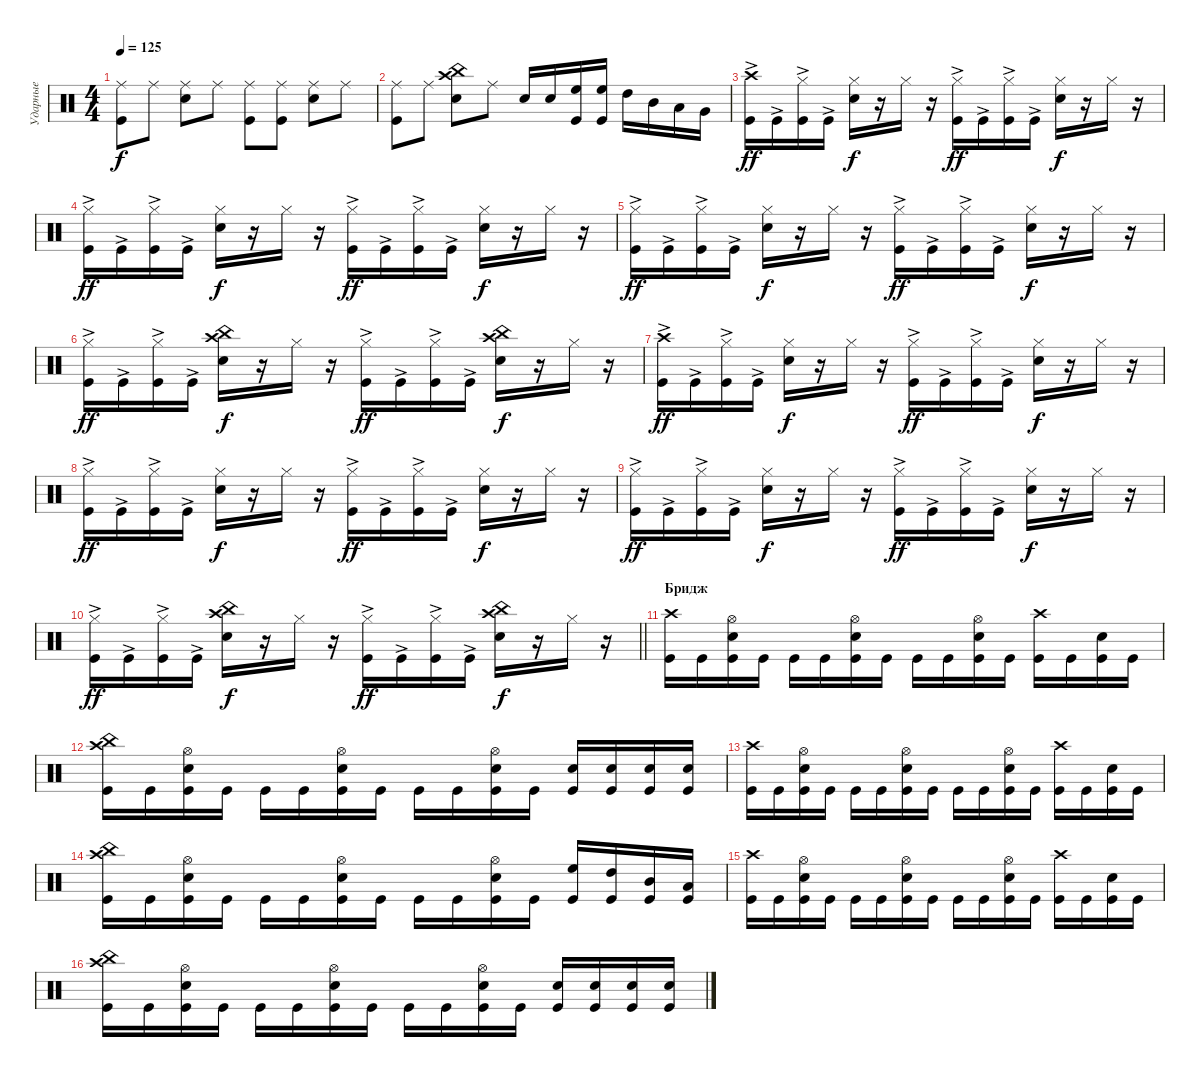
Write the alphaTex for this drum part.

\track ("Ударные" "Ударные") {instrument percussion}
\staff {score}
\articulation defaults
\ts (4 4)
\tempo 125
\clef neutral
\ks c
("Ride (middle)" "Kick (hit)").8{dy f} "Ride (middle)".8 ("Ride (middle)" "Snare (hit) 2").8 "Ride (middle)".8 ("Ride (middle)" "Kick (hit)").8 ("Ride (middle)" "Kick (hit)").8 ("Ride (middle)" "Snare (hit) 2").8 "Ride (middle)".8 |
("Ride (middle)" "Kick (hit)").8 "Ride (middle)".8 ("Crash high (hit)" "China (hit)" "Snare (hit) 2").8 "Ride (middle)".8 "Snare (hit) 2".16 "Snare (hit) 2".16 ("High Floor Tom (hit)" "Kick (hit)").16 ("High Floor Tom (hit)" "Kick (hit)").16 "High Tom (hit)".16 "Mid Tom (hit)".16 "Low Tom (hit)".16 "Very Low Tom (hit)".16 |
("Crash high (hit)" "Kick (hit)"{ac}).16{dy ff} "Kick (hit)"{ac}.16 ("Hi-Hat (closed)" "Kick (hit)"{ac}).16 "Kick (hit)"{ac}.16 ("Hi-Hat (closed)" "Snare (hit) 2").16{dy f} r.16 "Hi-Hat (closed)".16 r.16 ("Hi-Hat (closed)" "Kick (hit)"{ac}).16{dy ff} "Kick (hit)"{ac}.16 ("Hi-Hat (closed)" "Kick (hit)"{ac}).16 "Kick (hit)"{ac}.16 ("Hi-Hat (closed)" "Snare (hit) 2").16{dy f} r.16 "Hi-Hat (closed)".16 r.16 |
("Hi-Hat (closed)" "Kick (hit)"{ac}).16{dy ff} "Kick (hit)"{ac}.16 ("Hi-Hat (closed)" "Kick (hit)"{ac}).16 "Kick (hit)"{ac}.16 ("Hi-Hat (closed)" "Snare (hit) 2").16{dy f} r.16 "Hi-Hat (closed)".16 r.16 ("Hi-Hat (closed)" "Kick (hit)"{ac}).16{dy ff} "Kick (hit)"{ac}.16 ("Hi-Hat (closed)" "Kick (hit)"{ac}).16 "Kick (hit)"{ac}.16 ("Hi-Hat (closed)" "Snare (hit) 2").16{dy f} r.16 "Hi-Hat (closed)".16 r.16 |
("Hi-Hat (closed)" "Kick (hit)"{ac}).16{dy ff} "Kick (hit)"{ac}.16 ("Hi-Hat (closed)" "Kick (hit)"{ac}).16 "Kick (hit)"{ac}.16 ("Hi-Hat (closed)" "Snare (hit) 2").16{dy f} r.16 "Hi-Hat (closed)".16 r.16 ("Hi-Hat (closed)" "Kick (hit)"{ac}).16{dy ff} "Kick (hit)"{ac}.16 ("Hi-Hat (closed)" "Kick (hit)"{ac}).16 "Kick (hit)"{ac}.16 ("Hi-Hat (closed)" "Snare (hit) 2").16{dy f} r.16 "Hi-Hat (closed)".16 r.16 |
("Hi-Hat (closed)" "Kick (hit)"{ac}).16{dy ff} "Kick (hit)"{ac}.16 ("Hi-Hat (closed)" "Kick (hit)"{ac}).16 "Kick (hit)"{ac}.16 ("Crash high (hit)" "China (hit)" "Snare (hit) 2").16{dy f} r.16 "Hi-Hat (closed)".16 r.16 ("Hi-Hat (closed)" "Kick (hit)"{ac}).16{dy ff} "Kick (hit)"{ac}.16 ("Hi-Hat (closed)" "Kick (hit)"{ac}).16 "Kick (hit)"{ac}.16 ("Crash high (hit)" "China (hit)" "Snare (hit) 2").16{dy f} r.16 "Hi-Hat (closed)".16 r.16 |
("Crash high (hit)" "Kick (hit)"{ac}).16{dy ff} "Kick (hit)"{ac}.16 ("Hi-Hat (closed)" "Kick (hit)"{ac}).16 "Kick (hit)"{ac}.16 ("Hi-Hat (closed)" "Snare (hit) 2").16{dy f} r.16 "Hi-Hat (closed)".16 r.16 ("Hi-Hat (closed)" "Kick (hit)"{ac}).16{dy ff} "Kick (hit)"{ac}.16 ("Hi-Hat (closed)" "Kick (hit)"{ac}).16 "Kick (hit)"{ac}.16 ("Hi-Hat (closed)" "Snare (hit) 2").16{dy f} r.16 "Hi-Hat (closed)".16 r.16 |
("Hi-Hat (closed)" "Kick (hit)"{ac}).16{dy ff} "Kick (hit)"{ac}.16 ("Hi-Hat (closed)" "Kick (hit)"{ac}).16 "Kick (hit)"{ac}.16 ("Hi-Hat (closed)" "Snare (hit) 2").16{dy f} r.16 "Hi-Hat (closed)".16 r.16 ("Hi-Hat (closed)" "Kick (hit)"{ac}).16{dy ff} "Kick (hit)"{ac}.16 ("Hi-Hat (closed)" "Kick (hit)"{ac}).16 "Kick (hit)"{ac}.16 ("Hi-Hat (closed)" "Snare (hit) 2").16{dy f} r.16 "Hi-Hat (closed)".16 r.16 |
("Hi-Hat (closed)" "Kick (hit)"{ac}).16{dy ff} "Kick (hit)"{ac}.16 ("Hi-Hat (closed)" "Kick (hit)"{ac}).16 "Kick (hit)"{ac}.16 ("Hi-Hat (closed)" "Snare (hit) 2").16{dy f} r.16 "Hi-Hat (closed)".16 r.16 ("Hi-Hat (closed)" "Kick (hit)"{ac}).16{dy ff} "Kick (hit)"{ac}.16 ("Hi-Hat (closed)" "Kick (hit)"{ac}).16 "Kick (hit)"{ac}.16 ("Hi-Hat (closed)" "Snare (hit) 2").16{dy f} r.16 "Hi-Hat (closed)".16 r.16 |
\barLineRight lightlight
("Hi-Hat (closed)" "Kick (hit)"{ac}).16{dy ff} "Kick (hit)"{ac}.16 ("Hi-Hat (closed)" "Kick (hit)"{ac}).16 "Kick (hit)"{ac}.16 ("Crash high (hit)" "China (hit)" "Snare (hit) 2").16{dy f} r.16 "Hi-Hat (closed)".16 r.16 ("Hi-Hat (closed)" "Kick (hit)"{ac}).16{dy ff} "Kick (hit)"{ac}.16 ("Hi-Hat (closed)" "Kick (hit)"{ac}).16 "Kick (hit)"{ac}.16 ("Crash high (hit)" "China (hit)" "Snare (hit) 2").16{dy f} r.16 "Hi-Hat (closed)".16 r.16 |
\section ("" "Бридж")
("Crash high (hit)" "Kick (hit)").16 "Kick (hit)".16 ("Hi-Hat (open)" "Snare (hit) 2" "Kick (hit)").16 "Kick (hit)".16 "Kick (hit)".16 "Kick (hit)".16 ("Hi-Hat (open)" "Snare (hit) 2" "Kick (hit)").16 "Kick (hit)".16 "Kick (hit)".16 "Kick (hit)".16 ("Hi-Hat (open)" "Snare (hit) 2" "Kick (hit)").16 "Kick (hit)".16 ("Crash high (hit)" "Kick (hit)").16 "Kick (hit)".16 ("Snare (hit) 2" "Kick (hit)").16 "Kick (hit)".16 |
("Crash high (hit)" "China (hit)" "Kick (hit)").16 "Kick (hit)".16 ("Hi-Hat (open)" "Snare (hit) 2" "Kick (hit)").16 "Kick (hit)".16 "Kick (hit)".16 "Kick (hit)".16 ("Hi-Hat (open)" "Snare (hit) 2" "Kick (hit)").16 "Kick (hit)".16 "Kick (hit)".16 "Kick (hit)".16 ("Hi-Hat (open)" "Snare (hit) 2" "Kick (hit)").16 "Kick (hit)".16 ("Snare (hit) 2" "Kick (hit)").16 ("Snare (hit) 2" "Kick (hit)").16 ("Snare (hit) 2" "Kick (hit)").16 ("Snare (hit) 2" "Kick (hit)").16 |
("Crash high (hit)" "Kick (hit)").16 "Kick (hit)".16 ("Hi-Hat (open)" "Snare (hit) 2" "Kick (hit)").16 "Kick (hit)".16 "Kick (hit)".16 "Kick (hit)".16 ("Hi-Hat (open)" "Snare (hit) 2" "Kick (hit)").16 "Kick (hit)".16 "Kick (hit)".16 "Kick (hit)".16 ("Hi-Hat (open)" "Snare (hit) 2" "Kick (hit)").16 "Kick (hit)".16 ("Crash high (hit)" "Kick (hit)").16 "Kick (hit)".16 ("Snare (hit) 2" "Kick (hit)").16 "Kick (hit)".16 |
("Crash high (hit)" "China (hit)" "Kick (hit)").16 "Kick (hit)".16 ("Hi-Hat (open)" "Snare (hit) 2" "Kick (hit)").16 "Kick (hit)".16 "Kick (hit)".16 "Kick (hit)".16 ("Hi-Hat (open)" "Snare (hit) 2" "Kick (hit)").16 "Kick (hit)".16 "Kick (hit)".16 "Kick (hit)".16 ("Hi-Hat (open)" "Snare (hit) 2" "Kick (hit)").16 "Kick (hit)".16 ("High Floor Tom (hit)" "Kick (hit)").16 ("High Tom (hit)" "Kick (hit)").16 ("Mid Tom (hit)" "Kick (hit)").16 ("Low Tom (hit)" "Kick (hit)").16 |
("Crash high (hit)" "Kick (hit)").16 "Kick (hit)".16 ("Hi-Hat (open)" "Snare (hit) 2" "Kick (hit)").16 "Kick (hit)".16 "Kick (hit)".16 "Kick (hit)".16 ("Hi-Hat (open)" "Snare (hit) 2" "Kick (hit)").16 "Kick (hit)".16 "Kick (hit)".16 "Kick (hit)".16 ("Hi-Hat (open)" "Snare (hit) 2" "Kick (hit)").16 "Kick (hit)".16 ("Crash high (hit)" "Kick (hit)").16 "Kick (hit)".16 ("Snare (hit) 2" "Kick (hit)").16 "Kick (hit)".16 |
("Crash high (hit)" "China (hit)" "Kick (hit)").16 "Kick (hit)".16 ("Hi-Hat (open)" "Snare (hit) 2" "Kick (hit)").16 "Kick (hit)".16 "Kick (hit)".16 "Kick (hit)".16 ("Hi-Hat (open)" "Snare (hit) 2" "Kick (hit)").16 "Kick (hit)".16 "Kick (hit)".16 "Kick (hit)".16 ("Hi-Hat (open)" "Snare (hit) 2" "Kick (hit)").16 "Kick (hit)".16 ("Snare (hit) 2" "Kick (hit)").16 ("Snare (hit) 2" "Kick (hit)").16 ("Snare (hit) 2" "Kick (hit)").16 ("Snare (hit) 2" "Kick (hit)").16
